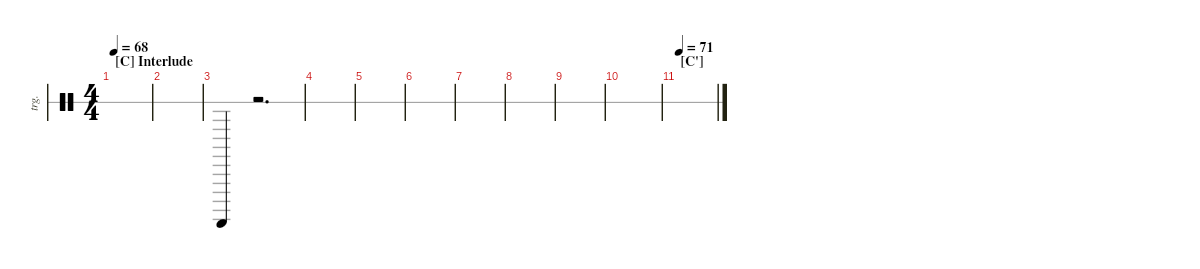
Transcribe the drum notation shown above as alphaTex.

\defaultSystemsLayout 4
\hideDynamics
\bracketExtendMode nobrackets
\track ("Triangle" "trg.") {instrument percussion}
\staff {score 1}
\articulation defaults
\ts (4 4)
\section ("C" "Interlude")
\tempo 68
\clef neutral
\ks c
|
|
"Triangle (hit)".4 r.2{d} |
|
|
|
|
|
|
|
\section ("C'" "")
\tempo 71
